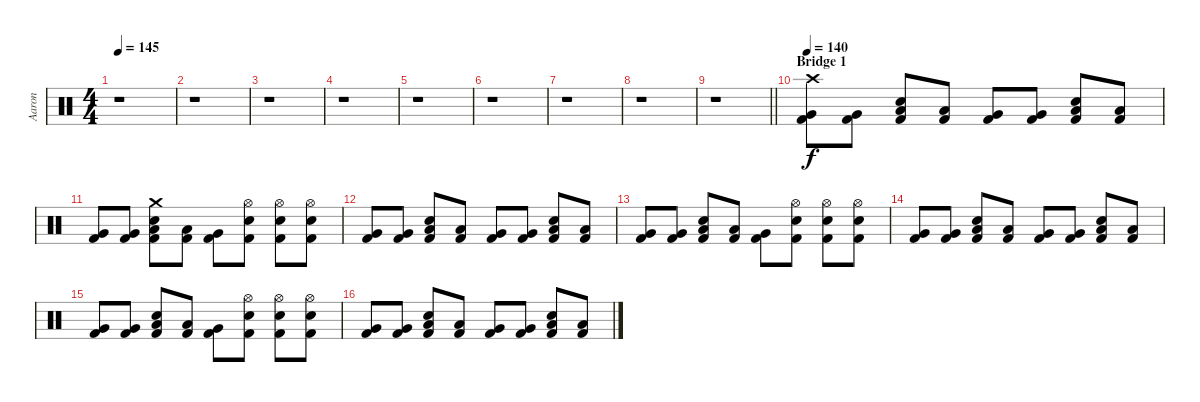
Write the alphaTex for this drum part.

\track ("Aaron" "Aaron") {instrument percussion}
\staff {score}
\articulation defaults
\ts (4 4)
\tempo 145
\clef neutral
\ks c
r.1{dy mp} |
r.1 |
r.1 |
r.1 |
r.1 |
r.1 |
r.1 |
r.1 |
\barLineRight lightlight
r.1 |
\section ("" "Bridge 1")
\tempo 140
("Crash high (hit)" "Very Low Tom (hit)" "Kick (hit) 2").8{dy f} ("Very Low Tom (hit)" "Kick (hit) 2").8 ("Low Tom (hit)" "Snare (hit) 2" "Kick (hit) 2").8 ("Low Floor Tom (hit)" "Kick (hit) 2").8 ("Very Low Tom (hit)" "Kick (hit) 2").8 ("Very Low Tom (hit)" "Kick (hit) 2").8 ("Low Tom (hit)" "Snare (hit) 2" "Kick (hit) 2").8 ("Low Floor Tom (hit)" "Kick (hit) 2").8 |
("Very Low Tom (hit)" "Kick (hit) 2").8 ("Very Low Tom (hit)" "Kick (hit) 2").8 ("Crash medium (hit)" "Low Tom (hit)" "Snare (hit) 2" "Kick (hit) 2").8 ("Low Floor Tom (hit)" "Kick (hit) 2").8 ("Very Low Tom (hit)" "Kick (hit) 2").8 ("Hi-Hat (open)" "Snare (hit) 2" "Kick (hit) 2").8 ("Hi-Hat (open)" "Snare (hit) 2" "Kick (hit) 2").8 ("Hi-Hat (open)" "Snare (hit) 2" "Kick (hit) 2").8 |
("Very Low Tom (hit)" "Kick (hit) 2").8 ("Very Low Tom (hit)" "Kick (hit) 2").8 ("Low Tom (hit)" "Snare (hit) 2" "Kick (hit) 2").8 ("Low Floor Tom (hit)" "Kick (hit) 2").8 ("Very Low Tom (hit)" "Kick (hit) 2").8 ("Very Low Tom (hit)" "Kick (hit) 2").8 ("Low Tom (hit)" "Snare (hit) 2" "Kick (hit) 2").8 ("Low Floor Tom (hit)" "Kick (hit) 2").8 |
("Very Low Tom (hit)" "Kick (hit) 2").8 ("Very Low Tom (hit)" "Kick (hit) 2").8 ("Low Tom (hit)" "Snare (hit) 2" "Kick (hit) 2").8 ("Low Floor Tom (hit)" "Kick (hit) 2").8 ("Very Low Tom (hit)" "Kick (hit) 2").8 ("Hi-Hat (open)" "Snare (hit) 2" "Kick (hit) 2").8 ("Hi-Hat (open)" "Snare (hit) 2" "Kick (hit) 2").8 ("Hi-Hat (open)" "Snare (hit) 2" "Kick (hit) 2").8 |
("Very Low Tom (hit)" "Kick (hit) 2").8 ("Very Low Tom (hit)" "Kick (hit) 2").8 ("Low Tom (hit)" "Snare (hit) 2" "Kick (hit) 2").8 ("Low Floor Tom (hit)" "Kick (hit) 2").8 ("Very Low Tom (hit)" "Kick (hit) 2").8 ("Very Low Tom (hit)" "Kick (hit) 2").8 ("Low Tom (hit)" "Snare (hit) 2" "Kick (hit) 2").8 ("Low Floor Tom (hit)" "Kick (hit) 2").8 |
("Very Low Tom (hit)" "Kick (hit) 2").8 ("Very Low Tom (hit)" "Kick (hit) 2").8 ("Low Tom (hit)" "Snare (hit) 2" "Kick (hit) 2").8 ("Low Floor Tom (hit)" "Kick (hit) 2").8 ("Very Low Tom (hit)" "Kick (hit) 2").8 ("Hi-Hat (open)" "Snare (hit) 2" "Kick (hit) 2").8 ("Hi-Hat (open)" "Snare (hit) 2" "Kick (hit) 2").8 ("Hi-Hat (open)" "Snare (hit) 2" "Kick (hit) 2").8 |
("Very Low Tom (hit)" "Kick (hit) 2").8 ("Very Low Tom (hit)" "Kick (hit) 2").8 ("Low Tom (hit)" "Snare (hit) 2" "Kick (hit) 2").8 ("Low Floor Tom (hit)" "Kick (hit) 2").8 ("Very Low Tom (hit)" "Kick (hit) 2").8 ("Very Low Tom (hit)" "Kick (hit) 2").8 ("Low Tom (hit)" "Snare (hit) 2" "Kick (hit) 2").8 ("Low Floor Tom (hit)" "Kick (hit) 2").8
